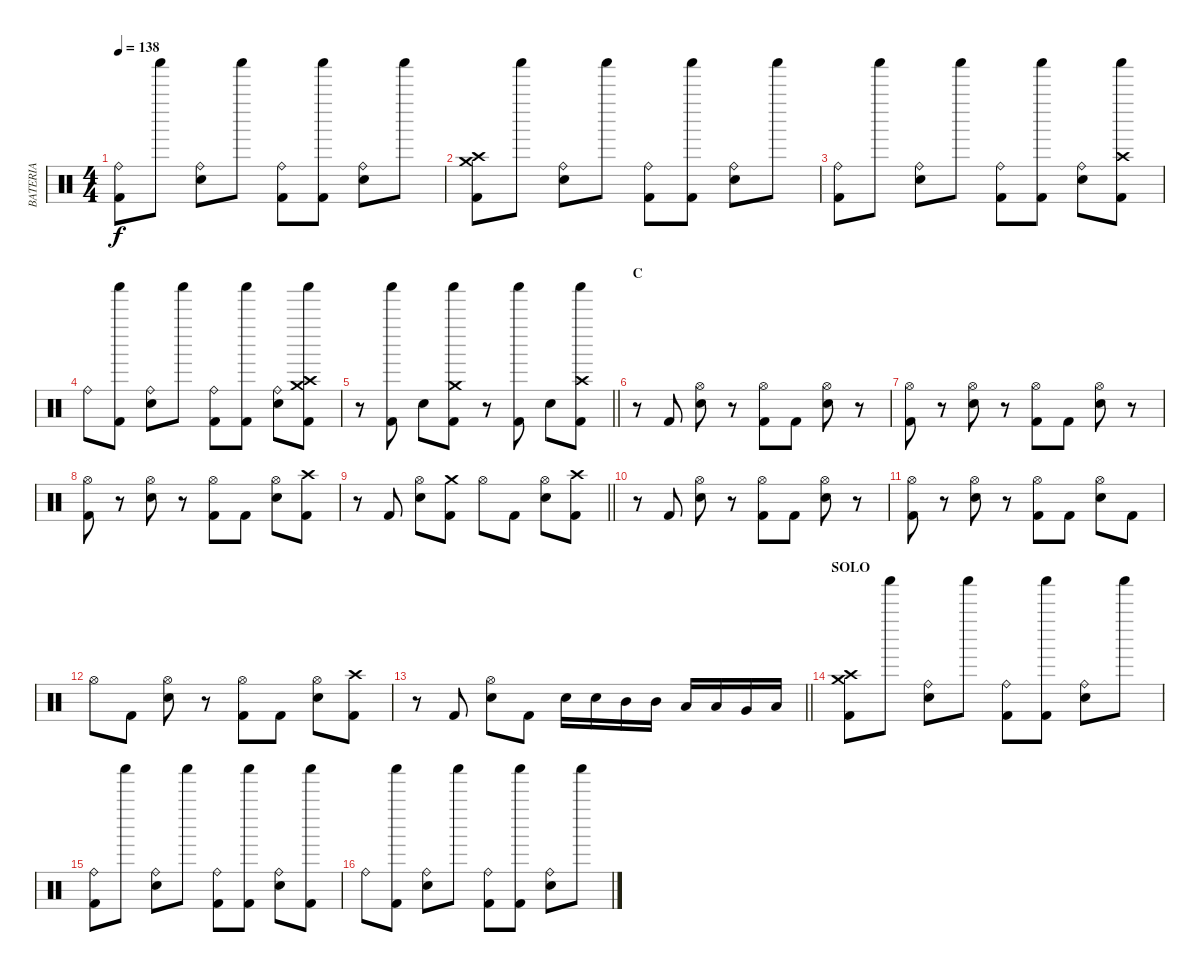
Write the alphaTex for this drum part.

\track ("BATERIA" "BATERIA") {instrument percussion}
\staff {score}
\articulation defaults
\ts (4 4)
\tempo 138
\clef neutral
\ks c
("Kick (hit) 2" "Ride (bell)").8{dy f} "Shaker (hit)".8 ("Electric Snare (hit)" "Ride (bell)").8 "Shaker (hit)".8 ("Kick (hit) 2" "Ride (bell)").8 ("Kick (hit) 2" "Shaker (hit)").8 ("Electric Snare (hit)" "Ride (bell)").8 "Shaker (hit)".8 |
("Kick (hit) 2" "Crash medium (hit)" "Crash high (hit)").8 "Shaker (hit)".8 ("Electric Snare (hit)" "Ride (bell)").8 "Shaker (hit)".8 ("Kick (hit) 2" "Ride (bell)").8 ("Kick (hit) 2" "Shaker (hit)").8 ("Electric Snare (hit)" "Ride (bell)").8 "Shaker (hit)".8 |
("Kick (hit) 2" "Ride (bell)").8 "Shaker (hit)".8 ("Electric Snare (hit)" "Ride (bell)").8 "Shaker (hit)".8 ("Kick (hit) 2" "Ride (bell)").8 ("Kick (hit) 2" "Shaker (hit)").8 ("Electric Snare (hit)" "Ride (bell)").8 ("Kick (hit) 2" "Shaker (hit)" "Crash high (hit)").8 |
"Ride (bell)".8 ("Kick (hit) 2" "Shaker (hit)").8 ("Electric Snare (hit)" "Ride (bell)").8 "Shaker (hit)".8 ("Kick (hit) 2" "Ride (bell)").8 ("Kick (hit) 2" "Shaker (hit)").8 ("Electric Snare (hit)" "Ride (bell)").8 ("Kick (hit) 2" "Shaker (hit)" "Crash high (hit)" "Crash medium (hit)").8 |
\barLineRight lightlight
r.8 ("Kick (hit) 2" "Shaker (hit)").8 "Electric Snare (hit)".8 ("Kick (hit) 2" "Shaker (hit)" "Crash medium (hit)").8 r.8 ("Kick (hit) 2" "Shaker (hit)").8 "Electric Snare (hit)".8 ("Kick (hit) 2" "Shaker (hit)" "Crash high (hit)").8 |
\section ("" "C")
r.8 "Kick (hit) 2".8 ("Electric Snare (hit)" "Hi-Hat (open)").8 r.8 ("Kick (hit) 2" "Hi-Hat (open)").8 "Kick (hit) 2".8 ("Electric Snare (hit)" "Hi-Hat (open)").8 r.8 |
("Kick (hit) 2" "Hi-Hat (open)").8 r.8 ("Electric Snare (hit)" "Hi-Hat (open)").8 r.8 ("Kick (hit) 2" "Hi-Hat (open)").8 "Kick (hit) 2".8 ("Electric Snare (hit)" "Hi-Hat (open)").8 r.8 |
("Kick (hit) 2" "Hi-Hat (open)").8 r.8 ("Electric Snare (hit)" "Hi-Hat (open)").8 r.8 ("Kick (hit) 2" "Hi-Hat (open)").8 "Kick (hit) 2".8 ("Electric Snare (hit)" "Hi-Hat (open)").8 ("Kick (hit) 2" "Crash high (hit)").8 |
\barLineRight lightlight
r.8 "Kick (hit) 2".8 ("Electric Snare (hit)" "Hi-Hat (open)").8 ("Kick (hit) 2" "Crash medium (hit)").8 "Hi-Hat (open)".8 "Kick (hit) 2".8 ("Electric Snare (hit)" "Hi-Hat (open)").8 ("Kick (hit) 2" "Crash high (hit)").8 |
r.8 "Kick (hit) 2".8 ("Electric Snare (hit)" "Hi-Hat (open)").8 r.8 ("Kick (hit) 2" "Hi-Hat (open)").8 "Kick (hit) 2".8 ("Electric Snare (hit)" "Hi-Hat (open)").8 r.8 |
("Kick (hit) 2" "Hi-Hat (open)").8 r.8 ("Electric Snare (hit)" "Hi-Hat (open)").8 r.8 ("Kick (hit) 2" "Hi-Hat (open)").8 "Kick (hit) 2".8 ("Electric Snare (hit)" "Hi-Hat (open)").8 "Kick (hit) 2".8 |
"Hi-Hat (open)".8 "Kick (hit) 2".8 ("Electric Snare (hit)" "Hi-Hat (open)").8 r.8 ("Kick (hit) 2" "Hi-Hat (open)").8 "Kick (hit) 2".8 ("Electric Snare (hit)" "Hi-Hat (open)").8 ("Kick (hit) 2" "Crash high (hit)").8 |
\barLineRight lightlight
r.8 "Kick (hit) 2".8 ("Electric Snare (hit)" "Hi-Hat (open)").8 "Kick (hit) 2".8 "Electric Snare (hit)".16 "Electric Snare (hit)".16 "Mid Tom (hit)".16 "Mid Tom (hit)".16 "Low Tom (hit)".16 "Low Tom (hit)".16 "Very Low Tom (hit)".16 "Low Floor Tom (hit)".16 |
\section ("" "SOLO")
("Kick (hit) 2" "Crash medium (hit)" "Crash high (hit)").8 "Shaker (hit)".8 ("Electric Snare (hit)" "Ride (bell)").8 "Shaker (hit)".8 ("Kick (hit) 2" "Ride (bell)").8 ("Kick (hit) 2" "Shaker (hit)").8 ("Electric Snare (hit)" "Ride (bell)").8 "Shaker (hit)".8 |
("Kick (hit) 2" "Ride (bell)").8 "Shaker (hit)".8 ("Electric Snare (hit)" "Ride (bell)").8 "Shaker (hit)".8 ("Kick (hit) 2" "Ride (bell)").8 ("Kick (hit) 2" "Shaker (hit)").8 ("Electric Snare (hit)" "Ride (bell)").8 ("Kick (hit) 2" "Shaker (hit)").8 |
"Ride (bell)".8 ("Kick (hit) 2" "Shaker (hit)").8 ("Electric Snare (hit)" "Ride (bell)").8 "Shaker (hit)".8 ("Kick (hit) 2" "Ride (bell)").8 ("Kick (hit) 2" "Shaker (hit)").8 ("Electric Snare (hit)" "Ride (bell)").8 "Shaker (hit)".8
